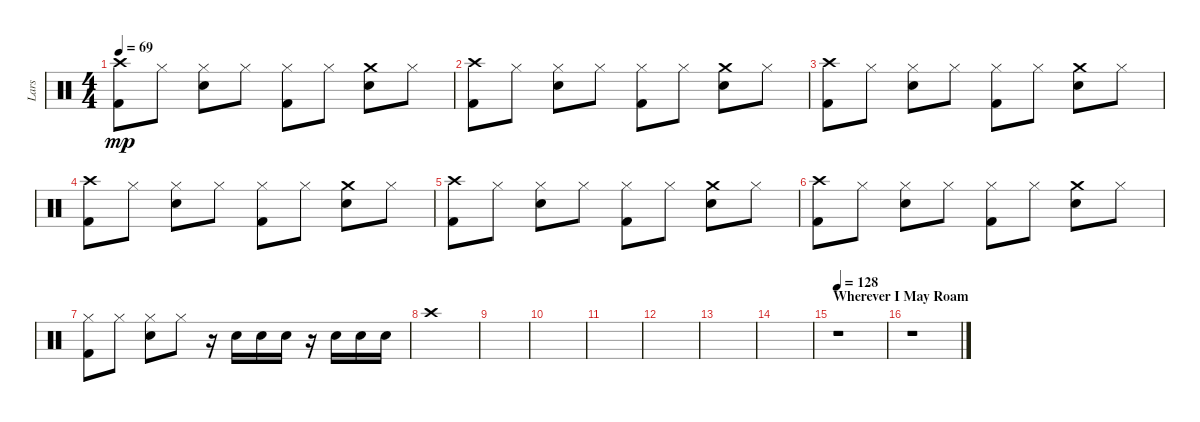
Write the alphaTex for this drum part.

\track ("Lars" "Lars") {instrument percussion}
\staff {score}
\articulation defaults
\ts (4 4)
\tempo 69
\clef neutral
\ks c
("Crash high (hit)" "Kick (hit) 2").8{dy mp} "Hi-Hat (closed)".8 ("Hi-Hat (closed)" "Electric Snare (hit)").8 "Hi-Hat (closed)".8 ("Hi-Hat (closed)" "Kick (hit) 2").8 "Hi-Hat (closed)".8 ("Crash medium (hit)" "Electric Snare (hit)").8 "Hi-Hat (closed)".8 |
("Crash high (hit)" "Kick (hit) 2").8 "Hi-Hat (closed)".8 ("Hi-Hat (closed)" "Electric Snare (hit)").8 "Hi-Hat (closed)".8 ("Hi-Hat (closed)" "Kick (hit) 2").8 "Hi-Hat (closed)".8 ("Crash medium (hit)" "Electric Snare (hit)").8 "Hi-Hat (closed)".8 |
("Crash high (hit)" "Kick (hit) 2").8 "Hi-Hat (closed)".8 ("Hi-Hat (closed)" "Electric Snare (hit)").8 "Hi-Hat (closed)".8 ("Hi-Hat (closed)" "Kick (hit) 2").8 "Hi-Hat (closed)".8 ("Crash medium (hit)" "Electric Snare (hit)").8 "Hi-Hat (closed)".8 |
("Crash high (hit)" "Kick (hit) 2").8 "Hi-Hat (closed)".8 ("Hi-Hat (closed)" "Electric Snare (hit)").8 "Hi-Hat (closed)".8 ("Hi-Hat (closed)" "Kick (hit) 2").8 "Hi-Hat (closed)".8 ("Crash medium (hit)" "Electric Snare (hit)").8 "Hi-Hat (closed)".8 |
("Crash high (hit)" "Kick (hit) 2").8 "Hi-Hat (closed)".8 ("Hi-Hat (closed)" "Electric Snare (hit)").8 "Hi-Hat (closed)".8 ("Hi-Hat (closed)" "Kick (hit) 2").8 "Hi-Hat (closed)".8 ("Crash medium (hit)" "Electric Snare (hit)").8 "Hi-Hat (closed)".8 |
("Crash high (hit)" "Kick (hit) 2").8 "Hi-Hat (closed)".8 ("Hi-Hat (closed)" "Electric Snare (hit)").8 "Hi-Hat (closed)".8 ("Hi-Hat (closed)" "Kick (hit) 2").8 "Hi-Hat (closed)".8 ("Crash medium (hit)" "Electric Snare (hit)").8 "Hi-Hat (closed)".8 |
("Hi-Hat (closed)" "Kick (hit) 2").8 "Hi-Hat (closed)".8 ("Hi-Hat (closed)" "Electric Snare (hit)").8 "Hi-Hat (closed)".8 r.16 "Electric Snare (hit)".16 "Electric Snare (hit)".16 "Electric Snare (hit)".16 r.16 "Electric Snare (hit)".16 "Electric Snare (hit)".16 "Electric Snare (hit)".16 |
"Crash high (hit)".1 |
|
|
|
|
|
|
\section ("" "Wherever I May Roam")
\tempo 128
r.1 |
r.1
